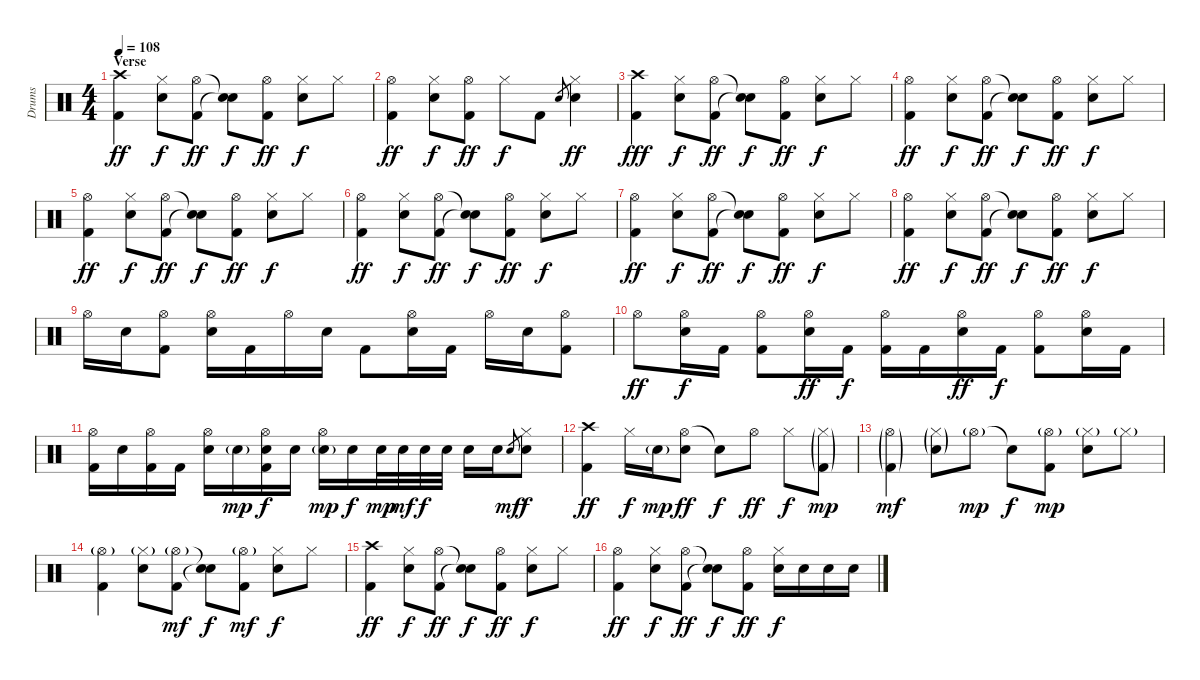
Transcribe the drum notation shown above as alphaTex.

\track ("Drums" "Drums") {instrument percussion}
\staff {score}
\articulation defaults
\ts (4 4)
\section ("" "Verse")
\tempo 108
\clef neutral
\ks c
("Crash high (hit)" "Kick (hit) 2").4{dy ff} ("Hi-Hat (closed)" "Electric Snare (hit)").8{dy f} ("Hi-Hat (open)" "Kick (hit) 2").8{dy ff} ("Snare (hit)"{t} "Snare (hit)"{t}).8{dy f} ("Hi-Hat (open)" "Kick (hit) 2").8{dy ff} ("Hi-Hat (closed)" "Electric Snare (hit)").8{dy f} "Hi-Hat (closed)".8 |
("Hi-Hat (open)" "Kick (hit) 2").4{dy ff} ("Hi-Hat (closed)" "Electric Snare (hit)").8{dy f} ("Hi-Hat (open)" "Kick (hit) 2").8{dy ff} "Hi-Hat (closed)".8{dy f} "Kick (hit) 2".8 "Electric Snare (hit)".8{gr} ("Hi-Hat (closed)" "Electric Snare (hit)").4{dy ff} |
("Crash high (hit)" "Kick (hit) 2").4{dy fff} ("Hi-Hat (closed)" "Electric Snare (hit)").8{dy f} ("Hi-Hat (open)" "Kick (hit) 2").8{dy ff} ("Snare (hit)"{t} "Snare (hit)"{t}).8{dy f} ("Hi-Hat (open)" "Kick (hit) 2").8{dy ff} ("Hi-Hat (closed)" "Electric Snare (hit)").8{dy f} "Hi-Hat (closed)".8 |
("Hi-Hat (open)" "Kick (hit) 2").4{dy ff} ("Hi-Hat (closed)" "Electric Snare (hit)").8{dy f} ("Hi-Hat (open)" "Kick (hit) 2").8{dy ff} ("Snare (hit)"{t} "Snare (hit)"{t}).8{dy f} ("Hi-Hat (open)" "Kick (hit) 2").8{dy ff} ("Hi-Hat (closed)" "Electric Snare (hit)").8{dy f} "Hi-Hat (closed)".8 |
("Hi-Hat (open)" "Kick (hit) 2").4{dy ff} ("Hi-Hat (closed)" "Electric Snare (hit)").8{dy f} ("Hi-Hat (open)" "Kick (hit) 2").8{dy ff} ("Snare (hit)"{t} "Snare (hit)"{t}).8{dy f} ("Hi-Hat (open)" "Kick (hit) 2").8{dy ff} ("Hi-Hat (closed)" "Electric Snare (hit)").8{dy f} "Hi-Hat (closed)".8 |
("Hi-Hat (open)" "Kick (hit) 2").4{dy ff} ("Hi-Hat (closed)" "Electric Snare (hit)").8{dy f} ("Hi-Hat (open)" "Kick (hit) 2").8{dy ff} ("Snare (hit)"{t} "Snare (hit)"{t}).8{dy f} ("Hi-Hat (open)" "Kick (hit) 2").8{dy ff} ("Hi-Hat (closed)" "Electric Snare (hit)").8{dy f} "Hi-Hat (closed)".8 |
("Hi-Hat (open)" "Kick (hit) 2").4{dy ff} ("Hi-Hat (closed)" "Electric Snare (hit)").8{dy f} ("Hi-Hat (open)" "Kick (hit) 2").8{dy ff} ("Snare (hit)"{t} "Snare (hit)"{t}).8{dy f} ("Hi-Hat (open)" "Kick (hit) 2").8{dy ff} ("Hi-Hat (closed)" "Electric Snare (hit)").8{dy f} "Hi-Hat (closed)".8 |
("Hi-Hat (open)" "Kick (hit) 2").4{dy ff} ("Hi-Hat (closed)" "Electric Snare (hit)").8{dy f} ("Hi-Hat (open)" "Kick (hit) 2").8{dy ff} ("Snare (hit)"{t} "Snare (hit)"{t}).8{dy f} ("Hi-Hat (open)" "Kick (hit) 2").8{dy ff} ("Hi-Hat (closed)" "Electric Snare (hit)").8{dy f} "Hi-Hat (closed)".8 |
"Hi-Hat (open)".16 "Electric Snare (hit)".16 ("Hi-Hat (open)" "Kick (hit) 2").8 ("Hi-Hat (open)" "Electric Snare (hit)").16 "Kick (hit) 2".16 "Hi-Hat (open)".16 "Electric Snare (hit)".16 "Kick (hit) 2".8 ("Hi-Hat (open)" "Electric Snare (hit)").16 "Kick (hit) 2".16 "Hi-Hat (open)".16 "Electric Snare (hit)".16 ("Hi-Hat (open)" "Kick (hit) 2").8 |
"Hi-Hat (open)".8{dy ff} ("Hi-Hat (open)" "Electric Snare (hit)").16{dy f} "Kick (hit) 2".16 ("Hi-Hat (open)" "Kick (hit) 2").8 ("Hi-Hat (open)" "Electric Snare (hit)").16{dy ff} "Kick (hit) 2".16{dy f} ("Hi-Hat (open)" "Kick (hit) 2").16 "Kick (hit) 2".16 ("Hi-Hat (open)" "Electric Snare (hit)").16{dy ff} "Kick (hit) 2".16{dy f} ("Hi-Hat (open)" "Kick (hit) 2").8 ("Hi-Hat (open)" "Electric Snare (hit)").16 "Kick (hit) 2".16 |
("Hi-Hat (open)" "Kick (hit) 2").16 "Electric Snare (hit)".16 ("Hi-Hat (open)" "Kick (hit) 2").16 "Kick (hit) 2".16 ("Hi-Hat (open)" "Electric Snare (hit)").16 "Electric Snare (hit)"{g}.16{dy mp} ("Hi-Hat (open)" "Electric Snare (hit)" "Kick (hit) 2").16{dy f} "Electric Snare (hit)".16 ("Hi-Hat (open)" "Electric Snare (hit)"{g}).16{dy mp} "Electric Snare (hit)".16{dy f} "Electric Snare (hit)".32{dy mp} "Electric Snare (hit)".32{dy mf} "Electric Snare (hit)".32{dy f} "Electric Snare (hit)".32 "Electric Snare (hit)".16 "Electric Snare (hit)".16 "Electric Snare (hit)".8{gr dy mf} ("Hi-Hat (closed)" "Electric Snare (hit)").8{dy f} |
("Crash high (hit)" "Kick (hit) 2").4{dy ff} "Hi-Hat (closed)".16{dy f} "Electric Snare (hit)"{g}.16{dy mp} ("Hi-Hat (open)" "Electric Snare (hit)").8{dy ff} "Snare (hit)"{t}.8{dy f} "Hi-Hat (open)".8{dy ff} "Hi-Hat (closed)".8{dy f} ("Hi-Hat (closed)"{g} "Kick (hit) 2"{g}).8{dy mp} |
("Hi-Hat (open)"{g} "Kick (hit) 2"{g}).4{dy mf} ("Hi-Hat (closed)"{g} "Electric Snare (hit)"{g}).8 "Hi-Hat (open)"{g}.8{dy mp} "Snare (hit)"{t}.8{dy f} ("Hi-Hat (open)"{g} "Kick (hit) 2").8{dy mp} ("Hi-Hat (closed)"{g} "Electric Snare (hit)").8 "Hi-Hat (closed)"{g}.8 |
("Hi-Hat (open)"{g} "Kick (hit) 2").4 ("Hi-Hat (closed)"{g} "Electric Snare (hit)").8 ("Hi-Hat (open)"{g} "Kick (hit) 2").8{dy mf} ("Snare (hit)"{t} "Snare (hit)"{t}).8{dy f} ("Hi-Hat (open)"{g} "Kick (hit) 2").8{dy mf} ("Hi-Hat (closed)" "Electric Snare (hit)").8{dy f} "Hi-Hat (closed)".8 |
("Crash high (hit)" "Kick (hit) 2").4{dy ff} ("Hi-Hat (closed)" "Electric Snare (hit)").8{dy f} ("Hi-Hat (open)" "Kick (hit) 2").8{dy ff} ("Snare (hit)"{t} "Snare (hit)"{t}).8{dy f} ("Hi-Hat (open)" "Kick (hit) 2").8{dy ff} ("Hi-Hat (closed)" "Electric Snare (hit)").8{dy f} "Hi-Hat (closed)".8 |
("Hi-Hat (open)" "Kick (hit) 2").4{dy ff} ("Hi-Hat (closed)" "Electric Snare (hit)").8{dy f} ("Hi-Hat (open)" "Kick (hit) 2").8{dy ff} ("Snare (hit)"{t} "Snare (hit)"{t}).8{dy f} ("Hi-Hat (open)" "Kick (hit) 2").8{dy ff} ("Hi-Hat (closed)" "Electric Snare (hit)").16{dy f} "Electric Snare (hit)".16 "Electric Snare (hit)".16 "Electric Snare (hit)".16
